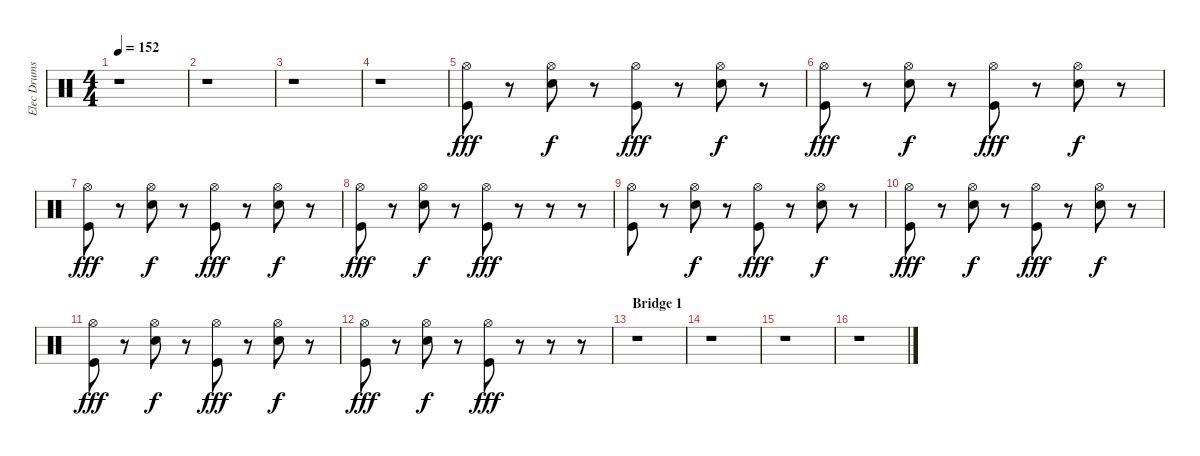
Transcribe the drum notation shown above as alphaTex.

\track ("Elec Drums" "Elec Drums") {instrument percussion}
\staff {score}
\articulation defaults
\ts (4 4)
\tempo 152
\clef neutral
\ks c
r.1{dy fff} |
r.1 |
r.1 |
r.1 |
("Hi-Hat (open)" "Kick (hit)").8 r.8 ("Hi-Hat (open)" "Electric Snare (hit)").8{dy f} r.8 ("Hi-Hat (open)" "Kick (hit)").8{dy fff} r.8 ("Hi-Hat (open)" "Electric Snare (hit)").8{dy f} r.8 |
("Hi-Hat (open)" "Kick (hit)").8{dy fff} r.8 ("Hi-Hat (open)" "Electric Snare (hit)").8{dy f} r.8 ("Hi-Hat (open)" "Kick (hit)").8{dy fff} r.8 ("Hi-Hat (open)" "Electric Snare (hit)").8{dy f} r.8 |
("Hi-Hat (open)" "Kick (hit)").8{dy fff} r.8 ("Hi-Hat (open)" "Electric Snare (hit)").8{dy f} r.8 ("Hi-Hat (open)" "Kick (hit)").8{dy fff} r.8 ("Hi-Hat (open)" "Electric Snare (hit)").8{dy f} r.8 |
("Hi-Hat (open)" "Kick (hit)").8{dy fff} r.8 ("Hi-Hat (open)" "Electric Snare (hit)").8{dy f} r.8 ("Hi-Hat (open)" "Kick (hit)").8{dy fff} r.8 r.8 r.8 |
("Hi-Hat (open)" "Kick (hit)").8 r.8 ("Hi-Hat (open)" "Electric Snare (hit)").8{dy f} r.8 ("Hi-Hat (open)" "Kick (hit)").8{dy fff} r.8 ("Hi-Hat (open)" "Electric Snare (hit)").8{dy f} r.8 |
("Hi-Hat (open)" "Kick (hit)").8{dy fff} r.8 ("Hi-Hat (open)" "Electric Snare (hit)").8{dy f} r.8 ("Hi-Hat (open)" "Kick (hit)").8{dy fff} r.8 ("Hi-Hat (open)" "Electric Snare (hit)").8{dy f} r.8 |
("Hi-Hat (open)" "Kick (hit)").8{dy fff} r.8 ("Hi-Hat (open)" "Electric Snare (hit)").8{dy f} r.8 ("Hi-Hat (open)" "Kick (hit)").8{dy fff} r.8 ("Hi-Hat (open)" "Electric Snare (hit)").8{dy f} r.8 |
\section ("" "")
("Hi-Hat (open)" "Kick (hit)").8{dy fff} r.8 ("Hi-Hat (open)" "Electric Snare (hit)").8{dy f} r.8 ("Hi-Hat (open)" "Kick (hit)").8{dy fff} r.8 r.8 r.8 |
\section ("" "Bridge 1")
r.1 |
r.1 |
r.1 |
r.1
